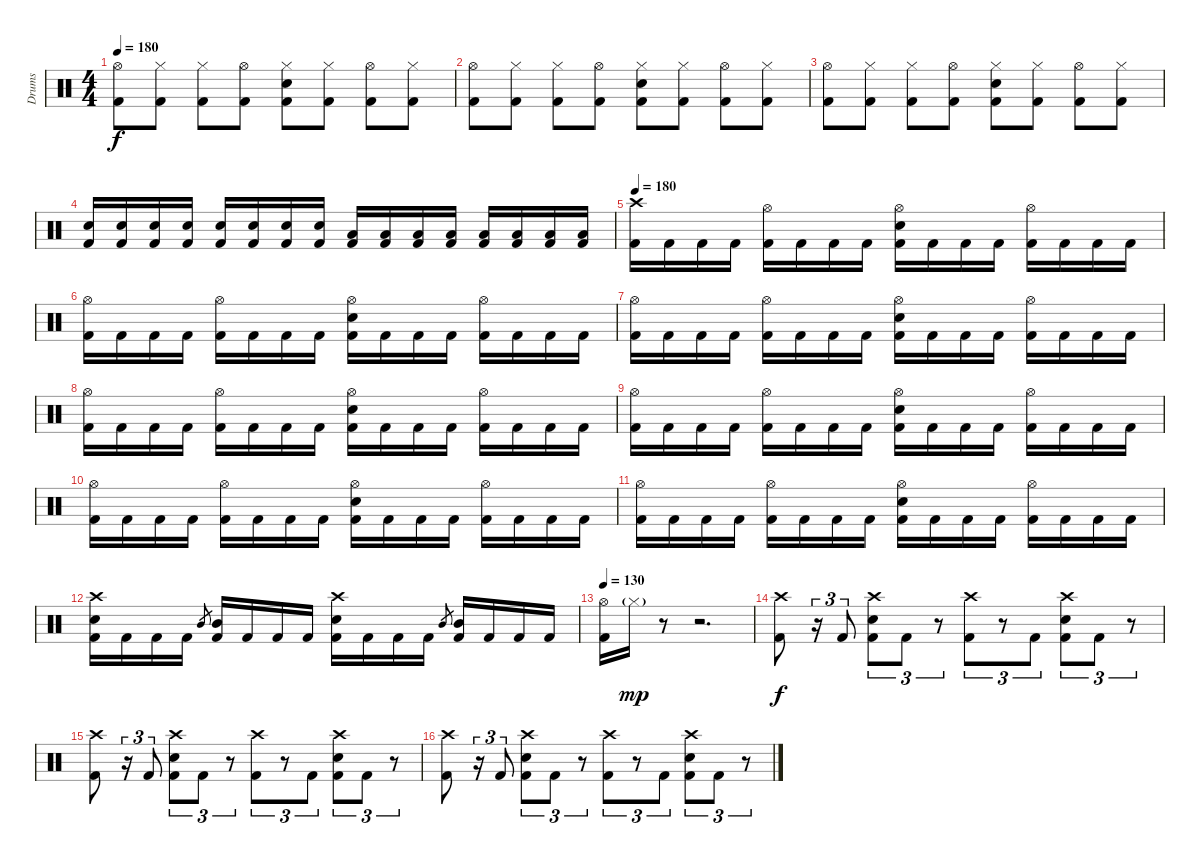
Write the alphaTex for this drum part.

\track ("Drums" "Drums") {instrument percussion}
\staff {score}
\articulation defaults
\ts (4 4)
\tempo 180
\clef neutral
\ks c
("Hi-Hat (open)" "Kick (hit) 2").8{dy f} ("Hi-Hat (closed)" "Kick (hit) 2").8 ("Hi-Hat (closed)" "Kick (hit) 2").8 ("Hi-Hat (open)" "Kick (hit) 2").8 ("Hi-Hat (closed)" "Electric Snare (hit)" "Kick (hit) 2").8 ("Hi-Hat (closed)" "Kick (hit) 2").8 ("Hi-Hat (open)" "Kick (hit) 2").8 ("Hi-Hat (closed)" "Kick (hit) 2").8 |
("Hi-Hat (open)" "Kick (hit) 2").8 ("Hi-Hat (closed)" "Kick (hit) 2").8 ("Hi-Hat (closed)" "Kick (hit) 2").8 ("Hi-Hat (open)" "Kick (hit) 2").8 ("Hi-Hat (closed)" "Electric Snare (hit)" "Kick (hit) 2").8 ("Hi-Hat (closed)" "Kick (hit) 2").8 ("Hi-Hat (open)" "Kick (hit) 2").8 ("Hi-Hat (closed)" "Kick (hit) 2").8 |
("Hi-Hat (open)" "Kick (hit) 2").8 ("Hi-Hat (closed)" "Kick (hit) 2").8 ("Hi-Hat (closed)" "Kick (hit) 2").8 ("Hi-Hat (open)" "Kick (hit) 2").8 ("Hi-Hat (closed)" "Electric Snare (hit)" "Kick (hit) 2").8 ("Hi-Hat (closed)" "Kick (hit) 2").8 ("Hi-Hat (open)" "Kick (hit) 2").8 ("Hi-Hat (closed)" "Kick (hit) 2").8 |
("Electric Snare (hit)" "Kick (hit) 2").16 ("Electric Snare (hit)" "Kick (hit) 2").16 ("Electric Snare (hit)" "Kick (hit) 2").16 ("Electric Snare (hit)" "Kick (hit) 2").16 ("Electric Snare (hit)" "Kick (hit) 2").16 ("Electric Snare (hit)" "Kick (hit) 2").16 ("Electric Snare (hit)" "Kick (hit) 2").16 ("Electric Snare (hit)" "Kick (hit) 2").16 ("Low Tom (hit)" "Kick (hit) 2").16 ("Low Tom (hit)" "Kick (hit) 2").16 ("Low Tom (hit)" "Kick (hit) 2").16 ("Low Tom (hit)" "Kick (hit) 2").16 ("Low Tom (hit)" "Kick (hit) 2").16 ("Low Tom (hit)" "Kick (hit) 2").16 ("Low Tom (hit)" "Kick (hit) 2").16 ("Low Tom (hit)" "Kick (hit) 2").16 |
\tempo 180
("Crash high (hit)" "Kick (hit) 2").16 "Kick (hit) 2".16 "Kick (hit) 2".16 "Kick (hit) 2".16 ("Hi-Hat (open)" "Kick (hit) 2").16 "Kick (hit) 2".16 "Kick (hit) 2".16 "Kick (hit) 2".16 ("Hi-Hat (open)" "Electric Snare (hit)" "Kick (hit) 2").16 "Kick (hit) 2".16 "Kick (hit) 2".16 "Kick (hit) 2".16 ("Hi-Hat (open)" "Kick (hit) 2").16 "Kick (hit) 2".16 "Kick (hit) 2".16 "Kick (hit) 2".16 |
("Hi-Hat (open)" "Kick (hit) 2").16 "Kick (hit) 2".16 "Kick (hit) 2".16 "Kick (hit) 2".16 ("Hi-Hat (open)" "Kick (hit) 2").16 "Kick (hit) 2".16 "Kick (hit) 2".16 "Kick (hit) 2".16 ("Hi-Hat (open)" "Electric Snare (hit)" "Kick (hit) 2").16 "Kick (hit) 2".16 "Kick (hit) 2".16 "Kick (hit) 2".16 ("Hi-Hat (open)" "Kick (hit) 2").16 "Kick (hit) 2".16 "Kick (hit) 2".16 "Kick (hit) 2".16 |
("Hi-Hat (open)" "Kick (hit) 2").16 "Kick (hit) 2".16 "Kick (hit) 2".16 "Kick (hit) 2".16 ("Hi-Hat (open)" "Kick (hit) 2").16 "Kick (hit) 2".16 "Kick (hit) 2".16 "Kick (hit) 2".16 ("Hi-Hat (open)" "Electric Snare (hit)" "Kick (hit) 2").16 "Kick (hit) 2".16 "Kick (hit) 2".16 "Kick (hit) 2".16 ("Hi-Hat (open)" "Kick (hit) 2").16 "Kick (hit) 2".16 "Kick (hit) 2".16 "Kick (hit) 2".16 |
("Hi-Hat (open)" "Kick (hit) 2").16 "Kick (hit) 2".16 "Kick (hit) 2".16 "Kick (hit) 2".16 ("Hi-Hat (open)" "Kick (hit) 2").16 "Kick (hit) 2".16 "Kick (hit) 2".16 "Kick (hit) 2".16 ("Hi-Hat (open)" "Electric Snare (hit)" "Kick (hit) 2").16 "Kick (hit) 2".16 "Kick (hit) 2".16 "Kick (hit) 2".16 ("Hi-Hat (open)" "Kick (hit) 2").16 "Kick (hit) 2".16 "Kick (hit) 2".16 "Kick (hit) 2".16 |
("Hi-Hat (open)" "Kick (hit) 2").16 "Kick (hit) 2".16 "Kick (hit) 2".16 "Kick (hit) 2".16 ("Hi-Hat (open)" "Kick (hit) 2").16 "Kick (hit) 2".16 "Kick (hit) 2".16 "Kick (hit) 2".16 ("Hi-Hat (open)" "Electric Snare (hit)" "Kick (hit) 2").16 "Kick (hit) 2".16 "Kick (hit) 2".16 "Kick (hit) 2".16 ("Hi-Hat (open)" "Kick (hit) 2").16 "Kick (hit) 2".16 "Kick (hit) 2".16 "Kick (hit) 2".16 |
("Hi-Hat (open)" "Kick (hit) 2").16 "Kick (hit) 2".16 "Kick (hit) 2".16 "Kick (hit) 2".16 ("Hi-Hat (open)" "Kick (hit) 2").16 "Kick (hit) 2".16 "Kick (hit) 2".16 "Kick (hit) 2".16 ("Hi-Hat (open)" "Electric Snare (hit)" "Kick (hit) 2").16 "Kick (hit) 2".16 "Kick (hit) 2".16 "Kick (hit) 2".16 ("Hi-Hat (open)" "Kick (hit) 2").16 "Kick (hit) 2".16 "Kick (hit) 2".16 "Kick (hit) 2".16 |
("Hi-Hat (open)" "Kick (hit) 2").16 "Kick (hit) 2".16 "Kick (hit) 2".16 "Kick (hit) 2".16 ("Hi-Hat (open)" "Kick (hit) 2").16 "Kick (hit) 2".16 "Kick (hit) 2".16 "Kick (hit) 2".16 ("Hi-Hat (open)" "Electric Snare (hit)" "Kick (hit) 2").16 "Kick (hit) 2".16 "Kick (hit) 2".16 "Kick (hit) 2".16 ("Hi-Hat (open)" "Kick (hit) 2").16 "Kick (hit) 2".16 "Kick (hit) 2".16 "Kick (hit) 2".16 |
("Crash high (hit)" "Electric Snare (hit)" "Kick (hit) 2").16 "Kick (hit) 2".16 "Kick (hit) 2".16 "Kick (hit) 2".16 "Mid Tom (hit)".8{gr} ("Mid Tom (hit)" "Kick (hit) 2").16 "Kick (hit) 2".16 "Kick (hit) 2".16 "Kick (hit) 2".16 ("Crash high (hit)" "Electric Snare (hit)" "Kick (hit) 2").16 "Kick (hit) 2".16 "Kick (hit) 2".16 "Kick (hit) 2".16 "Mid Tom (hit)".8{gr} ("Mid Tom (hit)" "Kick (hit) 2").16 "Kick (hit) 2".16 "Kick (hit) 2".16 "Kick (hit) 2".16 |
\tempo 130
("Hi-Hat (open)" "Kick (hit) 2").16 "Hi-Hat (closed)"{g}.16{dy mp} r.8 r.2{d} |
("Crash high (hit)" "Kick (hit) 2").8{dy f} r.16{tu (3 2)} "Kick (hit) 2".8{tu (3 2)} ("Crash high (hit)" "Electric Snare (hit)" "Kick (hit) 2").8{tu (3 2)} "Kick (hit) 2".8{tu (3 2)} r.8{tu (3 2)} ("Crash high (hit)" "Kick (hit) 2").8{tu (3 2)} r.8{tu (3 2)} "Kick (hit) 2".8{tu (3 2)} ("Crash high (hit)" "Electric Snare (hit)" "Kick (hit) 2").8{tu (3 2)} "Kick (hit) 2".8{tu (3 2)} r.8{tu (3 2)} |
("Crash high (hit)" "Kick (hit) 2").8 r.16{tu (3 2)} "Kick (hit) 2".8{tu (3 2)} ("Crash high (hit)" "Electric Snare (hit)" "Kick (hit) 2").8{tu (3 2)} "Kick (hit) 2".8{tu (3 2)} r.8{tu (3 2)} ("Crash high (hit)" "Kick (hit) 2").8{tu (3 2)} r.8{tu (3 2)} "Kick (hit) 2".8{tu (3 2)} ("Crash high (hit)" "Electric Snare (hit)" "Kick (hit) 2").8{tu (3 2)} "Kick (hit) 2".8{tu (3 2)} r.8{tu (3 2)} |
("Crash high (hit)" "Kick (hit) 2").8 r.16{tu (3 2)} "Kick (hit) 2".8{tu (3 2)} ("Crash high (hit)" "Electric Snare (hit)" "Kick (hit) 2").8{tu (3 2)} "Kick (hit) 2".8{tu (3 2)} r.8{tu (3 2)} ("Crash high (hit)" "Kick (hit) 2").8{tu (3 2)} r.8{tu (3 2)} "Kick (hit) 2".8{tu (3 2)} ("Crash high (hit)" "Electric Snare (hit)" "Kick (hit) 2").8{tu (3 2)} "Kick (hit) 2".8{tu (3 2)} r.8{tu (3 2)}
